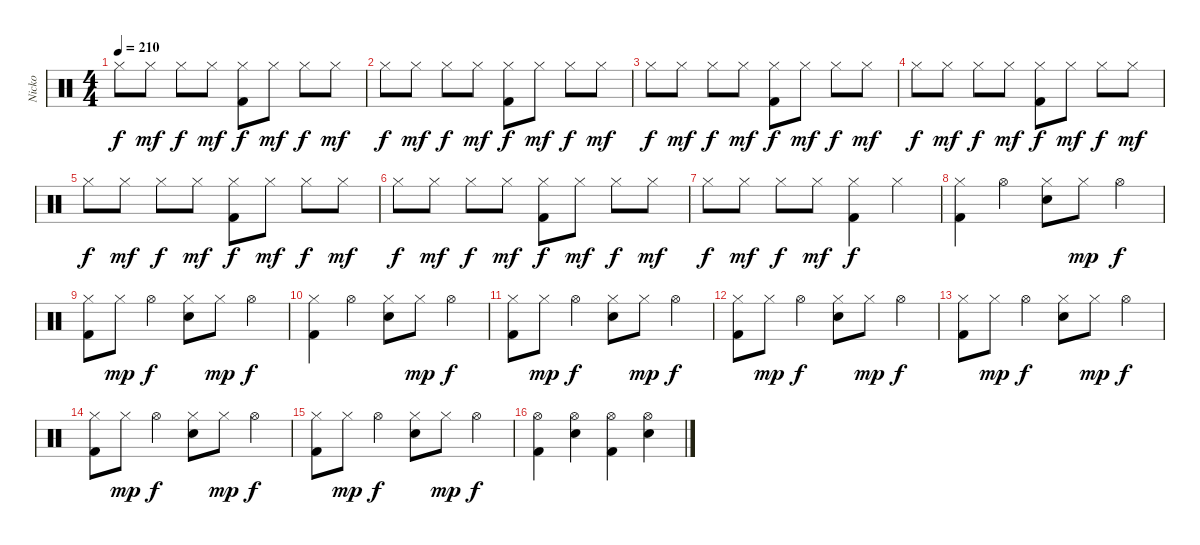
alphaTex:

\track ("Nicko" "Nicko") {instrument percussion}
\staff {score}
\articulation defaults
\ts (4 4)
\tempo 210
\clef neutral
\ks c "Hi-Hat (closed)".8{dy f} "Hi-Hat (closed)".8{dy mf} "Hi-Hat (closed)".8{dy f} "Hi-Hat (closed)".8{dy mf}
("Hi-Hat (closed)" "Kick (hit) 2").8{dy f} "Hi-Hat (closed)".8{dy mf} "Hi-Hat (closed)".8{dy f} "Hi-Hat (closed)".8{dy mf} |
"Hi-Hat (closed)".8{dy f} "Hi-Hat (closed)".8{dy mf} "Hi-Hat (closed)".8{dy f} "Hi-Hat (closed)".8{dy mf} ("Hi-Hat (closed)" "Kick (hit) 2").8{dy f} "Hi-Hat (closed)".8{dy mf} "Hi-Hat (closed)".8{dy f} "Hi-Hat (closed)".8{dy mf} |
"Hi-Hat (closed)".8{dy f} "Hi-Hat (closed)".8{dy mf} "Hi-Hat (closed)".8{dy f} "Hi-Hat (closed)".8{dy mf} ("Hi-Hat (closed)" "Kick (hit) 2").8{dy f} "Hi-Hat (closed)".8{dy mf} "Hi-Hat (closed)".8{dy f} "Hi-Hat (closed)".8{dy mf} |
"Hi-Hat (closed)".8{dy f} "Hi-Hat (closed)".8{dy mf} "Hi-Hat (closed)".8{dy f} "Hi-Hat (closed)".8{dy mf} ("Hi-Hat (closed)" "Kick (hit) 2").8{dy f} "Hi-Hat (closed)".8{dy mf} "Hi-Hat (closed)".8{dy f} "Hi-Hat (closed)".8{dy mf} |
"Hi-Hat (closed)".8{dy f} "Hi-Hat (closed)".8{dy mf} "Hi-Hat (closed)".8{dy f} "Hi-Hat (closed)".8{dy mf} ("Hi-Hat (closed)" "Kick (hit) 2").8{dy f} "Hi-Hat (closed)".8{dy mf} "Hi-Hat (closed)".8{dy f} "Hi-Hat (closed)".8{dy mf} |
"Hi-Hat (closed)".8{dy f} "Hi-Hat (closed)".8{dy mf} "Hi-Hat (closed)".8{dy f} "Hi-Hat (closed)".8{dy mf} ("Hi-Hat (closed)" "Kick (hit) 2").8{dy f} "Hi-Hat (closed)".8{dy mf} "Hi-Hat (closed)".8{dy f} "Hi-Hat (closed)".8{dy mf} |
"Hi-Hat (closed)".8{dy f} "Hi-Hat (closed)".8{dy mf} "Hi-Hat (closed)".8{dy f} "Hi-Hat (closed)".8{dy mf} ("Hi-Hat (closed)" "Kick (hit) 2").4{dy f} "Hi-Hat (closed)".4 |
("Hi-Hat (closed)" "Kick (hit) 2").4 "Hi-Hat (open)".4 ("Hi-Hat (closed)" "Electric Snare (hit)").8 "Hi-Hat (closed)".8{dy mp} "Hi-Hat (open)".4{dy f} |
("Hi-Hat (closed)" "Kick (hit) 2").8 "Hi-Hat (closed)".8{dy mp} "Hi-Hat (open)".4{dy f} ("Hi-Hat (closed)" "Electric Snare (hit)").8 "Hi-Hat (closed)".8{dy mp} "Hi-Hat (open)".4{dy f} |
("Hi-Hat (closed)" "Kick (hit) 2").4 "Hi-Hat (open)".4 ("Hi-Hat (closed)" "Electric Snare (hit)").8 "Hi-Hat (closed)".8{dy mp} "Hi-Hat (open)".4{dy f} |
("Hi-Hat (closed)" "Kick (hit) 2").8 "Hi-Hat (closed)".8{dy mp} "Hi-Hat (open)".4{dy f} ("Hi-Hat (closed)" "Electric Snare (hit)").8 "Hi-Hat (closed)".8{dy mp} "Hi-Hat (open)".4{dy f} |
("Hi-Hat (closed)" "Kick (hit) 2").8 "Hi-Hat (closed)".8{dy mp} "Hi-Hat (open)".4{dy f} ("Hi-Hat (closed)" "Electric Snare (hit)").8 "Hi-Hat (closed)".8{dy mp} "Hi-Hat (open)".4{dy f} |
("Hi-Hat (closed)" "Kick (hit) 2").8 "Hi-Hat (closed)".8{dy mp} "Hi-Hat (open)".4{dy f} ("Hi-Hat (closed)" "Electric Snare (hit)").8 "Hi-Hat (closed)".8{dy mp} "Hi-Hat (open)".4{dy f} |
("Hi-Hat (closed)" "Kick (hit) 2").8 "Hi-Hat (closed)".8{dy mp} "Hi-Hat (open)".4{dy f} ("Hi-Hat (closed)" "Electric Snare (hit)").8 "Hi-Hat (closed)".8{dy mp} "Hi-Hat (open)".4{dy f} |
("Hi-Hat (closed)" "Kick (hit) 2").8 "Hi-Hat (closed)".8{dy mp} "Hi-Hat (open)".4{dy f} ("Hi-Hat (closed)" "Electric Snare (hit)").8 "Hi-Hat (closed)".8{dy mp} "Hi-Hat (open)".4{dy f} |
("Hi-Hat (open)" "Kick (hit) 2").4 ("Hi-Hat (open)" "Electric Snare (hit)").4 ("Hi-Hat (open)" "Kick (hit) 2").4 ("Hi-Hat (open)" "Electric Snare (hit)").4
